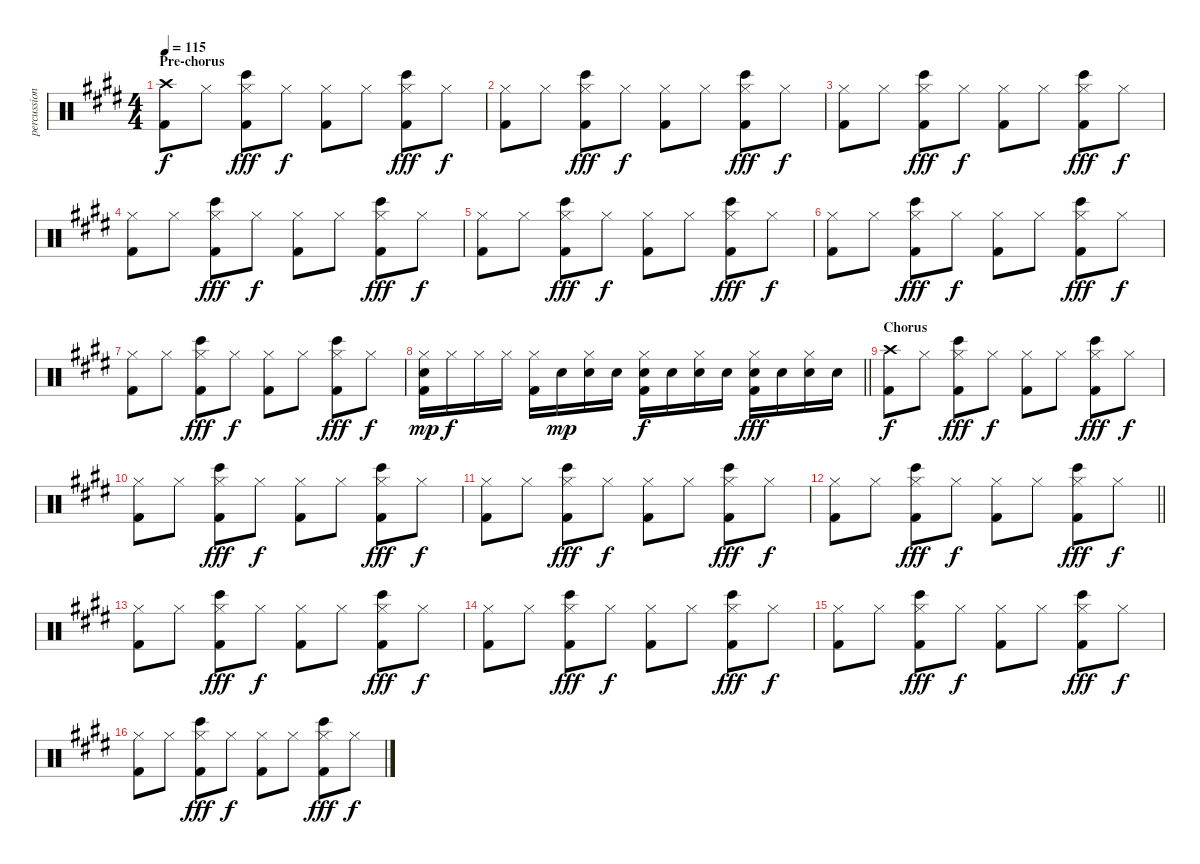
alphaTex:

\track ("percussion" "percussion") {instrument percussion}
\staff {score}
\articulation defaults
\ts (4 4)
\section ("" "Pre-chorus")
\tempo 115
\clef neutral
\ks c#minor
("Crash high (hit)" "Kick (hit) 2").8{dy f} "Hi-Hat (closed)".8 ("Bongo High (hit)" "Hi-Hat (closed)" "Kick (hit) 2").8{dy fff} "Hi-Hat (closed)".8{dy f} ("Hi-Hat (closed)" "Kick (hit) 2").8 "Hi-Hat (closed)".8 ("Bongo High (hit)" "Hi-Hat (closed)" "Kick (hit) 2").8{dy fff} "Hi-Hat (closed)".8{dy f} |
("Hi-Hat (closed)" "Kick (hit) 2").8 "Hi-Hat (closed)".8 ("Bongo High (hit)" "Hi-Hat (closed)" "Kick (hit) 2").8{dy fff} "Hi-Hat (closed)".8{dy f} ("Hi-Hat (closed)" "Kick (hit) 2").8 "Hi-Hat (closed)".8 ("Bongo High (hit)" "Hi-Hat (closed)" "Kick (hit) 2").8{dy fff} "Hi-Hat (closed)".8{dy f} |
("Hi-Hat (closed)" "Kick (hit) 2").8 "Hi-Hat (closed)".8 ("Bongo High (hit)" "Hi-Hat (closed)" "Kick (hit) 2").8{dy fff} "Hi-Hat (closed)".8{dy f} ("Hi-Hat (closed)" "Kick (hit) 2").8 "Hi-Hat (closed)".8 ("Bongo High (hit)" "Hi-Hat (closed)" "Kick (hit) 2").8{dy fff} "Hi-Hat (closed)".8{dy f} |
("Hi-Hat (closed)" "Kick (hit) 2").8 "Hi-Hat (closed)".8 ("Bongo High (hit)" "Hi-Hat (closed)" "Kick (hit) 2").8{dy fff} "Hi-Hat (closed)".8{dy f} ("Hi-Hat (closed)" "Kick (hit) 2").8 "Hi-Hat (closed)".8 ("Bongo High (hit)" "Hi-Hat (closed)" "Kick (hit) 2").8{dy fff} "Hi-Hat (closed)".8{dy f} |
("Hi-Hat (closed)" "Kick (hit) 2").8 "Hi-Hat (closed)".8 ("Bongo High (hit)" "Hi-Hat (closed)" "Kick (hit) 2").8{dy fff} "Hi-Hat (closed)".8{dy f} ("Hi-Hat (closed)" "Kick (hit) 2").8 "Hi-Hat (closed)".8 ("Bongo High (hit)" "Hi-Hat (closed)" "Kick (hit) 2").8{dy fff} "Hi-Hat (closed)".8{dy f} |
("Hi-Hat (closed)" "Kick (hit) 2").8 "Hi-Hat (closed)".8 ("Bongo High (hit)" "Hi-Hat (closed)" "Kick (hit) 2").8{dy fff} "Hi-Hat (closed)".8{dy f} ("Hi-Hat (closed)" "Kick (hit) 2").8 "Hi-Hat (closed)".8 ("Bongo High (hit)" "Hi-Hat (closed)" "Kick (hit) 2").8{dy fff} "Hi-Hat (closed)".8{dy f} |
("Hi-Hat (closed)" "Kick (hit) 2").8 "Hi-Hat (closed)".8 ("Bongo High (hit)" "Hi-Hat (closed)" "Kick (hit) 2").8{dy fff} "Hi-Hat (closed)".8{dy f} ("Hi-Hat (closed)" "Kick (hit) 2").8 "Hi-Hat (closed)".8 ("Bongo High (hit)" "Hi-Hat (closed)" "Kick (hit) 2").8{dy fff} "Hi-Hat (closed)".8{dy f} |
\barLineRight lightlight
("Snare (hit) 2" "Hi-Hat (closed)" "Kick (hit) 2").16{dy mp} "Hi-Hat (closed)".16{dy f} "Hi-Hat (closed)".16 "Hi-Hat (closed)".16 ("Hi-Hat (closed)" "Kick (hit) 2").16 "Snare (hit) 2".16{dy mp} ("Snare (hit) 2" "Hi-Hat (closed)").16 "Snare (hit) 2".16 ("Snare (hit) 2" "Hi-Hat (closed)" "Kick (hit) 2").16{dy f} "Snare (hit) 2".16 ("Snare (hit) 2" "Hi-Hat (closed)").16 "Snare (hit) 2".16 ("Snare (hit) 2" "Hi-Hat (closed)" "Kick (hit) 2").16{dy fff} "Snare (hit) 2".16 ("Snare (hit) 2" "Hi-Hat (closed)").16 "Snare (hit) 2".16 |
\section ("" "Chorus")
("Crash high (hit)" "Kick (hit) 2").8{dy f} "Hi-Hat (closed)".8 ("Bongo High (hit)" "Hi-Hat (closed)" "Kick (hit) 2").8{dy fff} "Hi-Hat (closed)".8{dy f} ("Hi-Hat (closed)" "Kick (hit) 2").8 "Hi-Hat (closed)".8 ("Bongo High (hit)" "Hi-Hat (closed)" "Kick (hit) 2").8{dy fff} "Hi-Hat (closed)".8{dy f} |
("Hi-Hat (closed)" "Kick (hit) 2").8 "Hi-Hat (closed)".8 ("Bongo High (hit)" "Hi-Hat (closed)" "Kick (hit) 2").8{dy fff} "Hi-Hat (closed)".8{dy f} ("Hi-Hat (closed)" "Kick (hit) 2").8 "Hi-Hat (closed)".8 ("Bongo High (hit)" "Hi-Hat (closed)" "Kick (hit) 2").8{dy fff} "Hi-Hat (closed)".8{dy f} |
("Hi-Hat (closed)" "Kick (hit) 2").8 "Hi-Hat (closed)".8 ("Bongo High (hit)" "Hi-Hat (closed)" "Kick (hit) 2").8{dy fff} "Hi-Hat (closed)".8{dy f} ("Hi-Hat (closed)" "Kick (hit) 2").8 "Hi-Hat (closed)".8 ("Bongo High (hit)" "Hi-Hat (closed)" "Kick (hit) 2").8{dy fff} "Hi-Hat (closed)".8{dy f} |
\barLineRight lightlight
("Hi-Hat (closed)" "Kick (hit) 2").8 "Hi-Hat (closed)".8 ("Bongo High (hit)" "Hi-Hat (closed)" "Kick (hit) 2").8{dy fff} "Hi-Hat (closed)".8{dy f} ("Hi-Hat (closed)" "Kick (hit) 2").8 "Hi-Hat (closed)".8 ("Bongo High (hit)" "Hi-Hat (closed)" "Kick (hit) 2").8{dy fff} "Hi-Hat (closed)".8{dy f} |
("Hi-Hat (closed)" "Kick (hit) 2").8 "Hi-Hat (closed)".8 ("Bongo High (hit)" "Hi-Hat (closed)" "Kick (hit) 2").8{dy fff} "Hi-Hat (closed)".8{dy f} ("Hi-Hat (closed)" "Kick (hit) 2").8 "Hi-Hat (closed)".8 ("Bongo High (hit)" "Hi-Hat (closed)" "Kick (hit) 2").8{dy fff} "Hi-Hat (closed)".8{dy f} |
("Hi-Hat (closed)" "Kick (hit) 2").8 "Hi-Hat (closed)".8 ("Bongo High (hit)" "Hi-Hat (closed)" "Kick (hit) 2").8{dy fff} "Hi-Hat (closed)".8{dy f} ("Hi-Hat (closed)" "Kick (hit) 2").8 "Hi-Hat (closed)".8 ("Bongo High (hit)" "Hi-Hat (closed)" "Kick (hit) 2").8{dy fff} "Hi-Hat (closed)".8{dy f} |
("Hi-Hat (closed)" "Kick (hit) 2").8 "Hi-Hat (closed)".8 ("Bongo High (hit)" "Hi-Hat (closed)" "Kick (hit) 2").8{dy fff} "Hi-Hat (closed)".8{dy f} ("Hi-Hat (closed)" "Kick (hit) 2").8 "Hi-Hat (closed)".8 ("Bongo High (hit)" "Hi-Hat (closed)" "Kick (hit) 2").8{dy fff} "Hi-Hat (closed)".8{dy f} |
("Hi-Hat (closed)" "Kick (hit) 2").8 "Hi-Hat (closed)".8 ("Bongo High (hit)" "Hi-Hat (closed)" "Kick (hit) 2").8{dy fff} "Hi-Hat (closed)".8{dy f} ("Hi-Hat (closed)" "Kick (hit) 2").8 "Hi-Hat (closed)".8 ("Bongo High (hit)" "Hi-Hat (closed)" "Kick (hit) 2").8{dy fff} "Hi-Hat (closed)".8{dy f}
